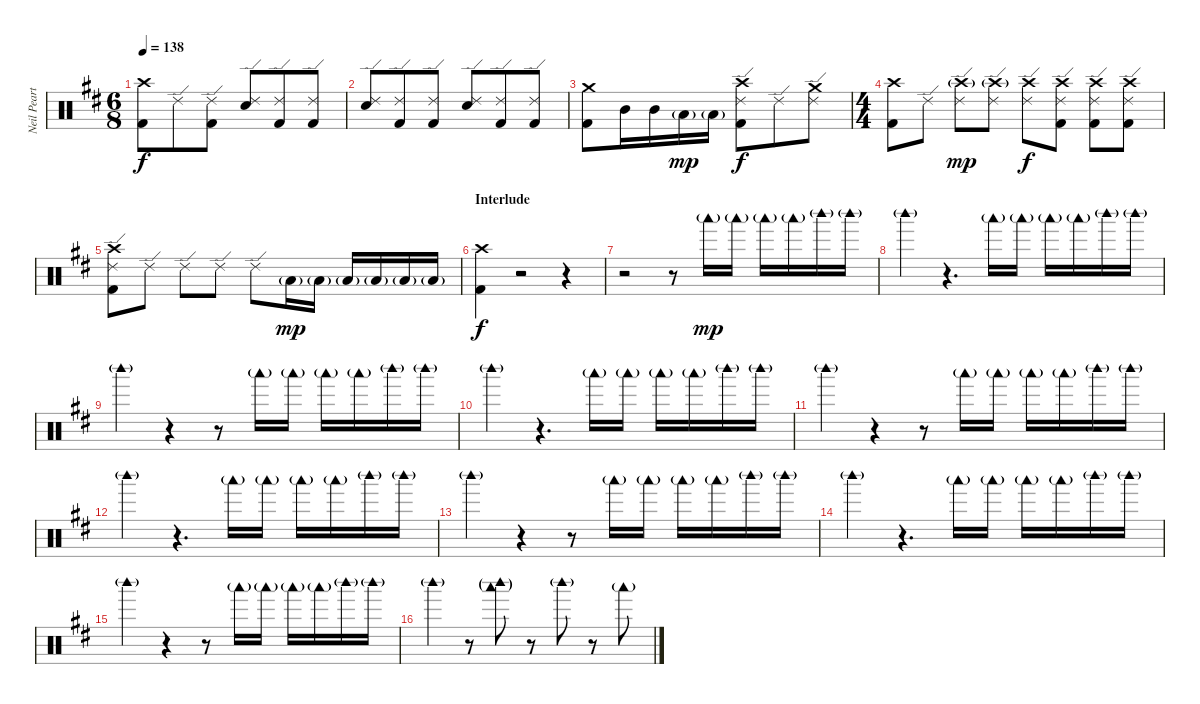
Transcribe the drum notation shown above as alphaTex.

\track ("Neil Peart" "Neil Peart") {instrument percussion}
\staff {score}
\articulation defaults
\ts (6 8)
\tempo 138
\clef neutral
\ks d
("Crash high (hit)" "Kick (hit) 2").8{dy f} "Ride (edge) 2".8 ("Ride (edge) 2" "Kick (hit) 2").8 ("Ride (edge) 2" "Electric Snare (hit)").8 ("Ride (edge) 2" "Kick (hit) 2").8 ("Ride (edge) 2" "Kick (hit) 2").8 |
("Ride (edge) 2" "Electric Snare (hit)").8 ("Ride (edge) 2" "Kick (hit) 2").8 ("Ride (edge) 2" "Kick (hit) 2").8 ("Ride (edge) 2" "Electric Snare (hit)").8 ("Ride (edge) 2" "Kick (hit) 2").8 ("Ride (edge) 2" "Kick (hit) 2").8 |
("Crash medium (hit)" "Kick (hit) 2").8 "Mid Tom (hit)".16 "Mid Tom (hit)".16 "Low Tom (hit)"{g}.16{dy mp} "Low Tom (hit)"{g}.16 ("Crash high (hit)" "Ride (edge) 2" "Kick (hit) 2").8{dy f} "Ride (edge) 2".8 ("Crash medium (hit)" "Ride (edge) 2").8 |
\ts (4 4)
("Crash high (hit)" "Kick (hit) 2").8 "Ride (edge) 2".8 ("Crash high (hit)"{g} "Ride (edge) 2").8{dy mp} ("Crash high (hit)"{g} "Ride (edge) 2").8 ("Crash high (hit)" "Ride (edge) 2").8{dy f} ("Crash high (hit)" "Ride (edge) 2" "Kick (hit) 2").8 ("Crash high (hit)" "Ride (edge) 2" "Kick (hit) 2").8 ("Crash high (hit)" "Ride (edge) 2" "Kick (hit) 2").8 |
("Crash high (hit)" "Ride (edge) 2" "Kick (hit) 2").8 "Ride (edge) 2".8 "Ride (edge) 2".8 "Ride (edge) 2".8 "Ride (edge) 2".8 "Low Floor Tom (hit)"{g}.16{dy mp} "Low Floor Tom (hit)"{g}.16 "Low Floor Tom (hit)"{g}.16 "Low Floor Tom (hit)"{g}.16 "Low Floor Tom (hit)"{g}.16 "Low Floor Tom (hit)"{g}.16 |
\section ("" "Interlude")
("Crash high (hit)" "Kick (hit) 2").4{dy f} r.2 r.4 |
r.2 r.8 "Woodblock low (hit)"{g}.16{dy mp} "Woodblock low (hit)"{g}.16 "Woodblock low (hit)"{g}.16 "Woodblock low (hit)"{g}.16 "Woodblock high (hit)"{g}.16 "Woodblock high (hit)"{g}.16 |
"Woodblock high (hit)"{g}.4 r.4{d} "Woodblock low (hit)"{g}.16 "Woodblock low (hit)"{g}.16 "Woodblock low (hit)"{g}.16 "Woodblock low (hit)"{g}.16 "Woodblock high (hit)"{g}.16 "Woodblock high (hit)"{g}.16 |
"Woodblock high (hit)"{g}.4 r.4 r.8 "Woodblock low (hit)"{g}.16 "Woodblock low (hit)"{g}.16 "Woodblock low (hit)"{g}.16 "Woodblock low (hit)"{g}.16 "Woodblock high (hit)"{g}.16 "Woodblock high (hit)"{g}.16 |
"Woodblock high (hit)"{g}.4 r.4{d} "Woodblock low (hit)"{g}.16 "Woodblock low (hit)"{g}.16 "Woodblock low (hit)"{g}.16 "Woodblock low (hit)"{g}.16 "Woodblock high (hit)"{g}.16 "Woodblock high (hit)"{g}.16 |
"Woodblock high (hit)"{g}.4 r.4 r.8 "Woodblock low (hit)"{g}.16 "Woodblock low (hit)"{g}.16 "Woodblock low (hit)"{g}.16 "Woodblock low (hit)"{g}.16 "Woodblock high (hit)"{g}.16 "Woodblock high (hit)"{g}.16 |
"Woodblock high (hit)"{g}.4 r.4{d} "Woodblock low (hit)"{g}.16 "Woodblock low (hit)"{g}.16 "Woodblock low (hit)"{g}.16 "Woodblock low (hit)"{g}.16 "Woodblock high (hit)"{g}.16 "Woodblock high (hit)"{g}.16 |
"Woodblock high (hit)"{g}.4 r.4 r.8 "Woodblock low (hit)"{g}.16 "Woodblock low (hit)"{g}.16 "Woodblock low (hit)"{g}.16 "Woodblock low (hit)"{g}.16 "Woodblock high (hit)"{g}.16 "Woodblock high (hit)"{g}.16 |
"Woodblock high (hit)"{g}.4 r.4{d} "Woodblock low (hit)"{g}.16 "Woodblock low (hit)"{g}.16 "Woodblock low (hit)"{g}.16 "Woodblock low (hit)"{g}.16 "Woodblock high (hit)"{g}.16 "Woodblock high (hit)"{g}.16 |
"Woodblock high (hit)"{g}.4 r.4 r.8 "Woodblock low (hit)"{g}.16 "Woodblock low (hit)"{g}.16 "Woodblock low (hit)"{g}.16 "Woodblock low (hit)"{g}.16 "Woodblock high (hit)"{g}.16 "Woodblock high (hit)"{g}.16 |
"Woodblock high (hit)"{g}.4 r.8 ("Woodblock low (hit)"{g} "Woodblock high (hit)"{g}).8 r.8 "Woodblock high (hit)"{g}.8 r.8 "Woodblock low (hit)"{g}.8
